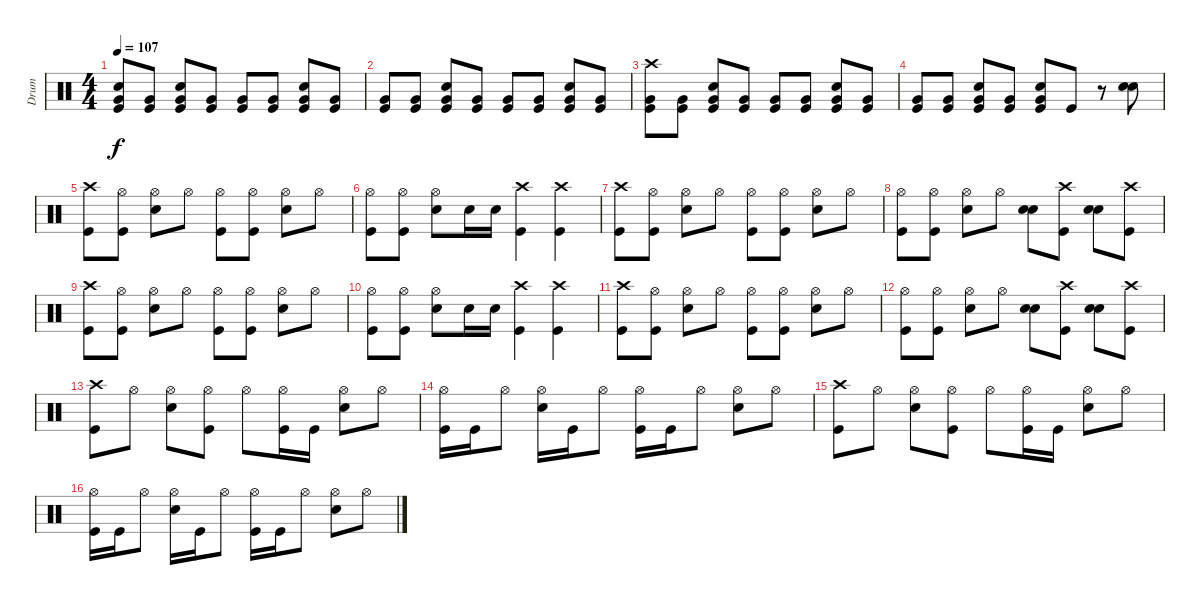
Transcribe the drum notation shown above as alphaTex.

\track ("Drum" "Drum") {instrument percussion}
\staff {score}
\articulation defaults
\ts (4 4)
\tempo 107
\clef neutral
\ks c
("Very Low Tom (hit)" "Kick (hit)" "Snare (hit) 2").8{dy f} ("Very Low Tom (hit)" "Kick (hit)").8 ("Very Low Tom (hit)" "Kick (hit)" "Snare (hit) 2").8 ("Very Low Tom (hit)" "Kick (hit)").8 ("Very Low Tom (hit)" "Kick (hit)").8 ("Very Low Tom (hit)" "Kick (hit)").8 ("Very Low Tom (hit)" "Kick (hit)" "Snare (hit) 2").8 ("Very Low Tom (hit)" "Kick (hit)").8 |
("Very Low Tom (hit)" "Kick (hit)").8 ("Very Low Tom (hit)" "Kick (hit)").8 ("Very Low Tom (hit)" "Kick (hit)" "Snare (hit) 2").8 ("Very Low Tom (hit)" "Kick (hit)").8 ("Very Low Tom (hit)" "Kick (hit)").8 ("Very Low Tom (hit)" "Kick (hit)").8 ("Very Low Tom (hit)" "Kick (hit)" "Snare (hit) 2").8 ("Very Low Tom (hit)" "Kick (hit)").8 |
("Very Low Tom (hit)" "Kick (hit)" "Crash high (hit)").8 ("Very Low Tom (hit)" "Kick (hit)").8 ("Very Low Tom (hit)" "Kick (hit)" "Snare (hit) 2").8 ("Very Low Tom (hit)" "Kick (hit)").8 ("Very Low Tom (hit)" "Kick (hit)").8 ("Very Low Tom (hit)" "Kick (hit)").8 ("Very Low Tom (hit)" "Kick (hit)" "Snare (hit) 2").8 ("Very Low Tom (hit)" "Kick (hit)").8 |
("Very Low Tom (hit)" "Kick (hit)").8 ("Very Low Tom (hit)" "Kick (hit)").8 ("Very Low Tom (hit)" "Kick (hit)" "Snare (hit) 2").8 ("Very Low Tom (hit)" "Kick (hit)").8 ("Very Low Tom (hit)" "Kick (hit)" "Snare (hit) 2").8 "Kick (hit)".8 r.8 ("Snare (hit) 2" "Snare (hit) 2").8 |
("Crash high (hit)" "Kick (hit)").8 ("Hi-Hat (open)" "Kick (hit)").8 ("Hi-Hat (open)" "Snare (hit) 2").8 "Hi-Hat (open)".8 ("Hi-Hat (open)" "Kick (hit)").8 ("Hi-Hat (open)" "Kick (hit)").8 ("Hi-Hat (open)" "Snare (hit) 2").8 "Hi-Hat (open)".8 |
("Hi-Hat (open)" "Kick (hit)").8 ("Hi-Hat (open)" "Kick (hit)").8 ("Hi-Hat (open)" "Snare (hit) 2").8 "Snare (hit) 2".16 "Snare (hit) 2".16 ("Crash high (hit)" "Kick (hit)").4 ("Crash high (hit)" "Kick (hit)").4 |
("Crash high (hit)" "Kick (hit)").8 ("Hi-Hat (open)" "Kick (hit)").8 ("Hi-Hat (open)" "Snare (hit) 2").8 "Hi-Hat (open)".8 ("Hi-Hat (open)" "Kick (hit)").8 ("Hi-Hat (open)" "Kick (hit)").8 ("Hi-Hat (open)" "Snare (hit) 2").8 "Hi-Hat (open)".8 |
("Hi-Hat (open)" "Kick (hit)").8 ("Hi-Hat (open)" "Kick (hit)").8 ("Hi-Hat (open)" "Snare (hit) 2").8 "Hi-Hat (open)".8 ("Snare (hit) 2" "Snare (hit) 2").8 ("Crash high (hit)" "Kick (hit)").8 ("Snare (hit) 2" "Snare (hit) 2").8 ("Crash high (hit)" "Kick (hit)").8 |
("Crash high (hit)" "Kick (hit)").8 ("Hi-Hat (open)" "Kick (hit)").8 ("Hi-Hat (open)" "Snare (hit) 2").8 "Hi-Hat (open)".8 ("Hi-Hat (open)" "Kick (hit)").8 ("Hi-Hat (open)" "Kick (hit)").8 ("Hi-Hat (open)" "Snare (hit) 2").8 "Hi-Hat (open)".8 |
("Hi-Hat (open)" "Kick (hit)").8 ("Hi-Hat (open)" "Kick (hit)").8 ("Hi-Hat (open)" "Snare (hit) 2").8 "Snare (hit) 2".16 "Snare (hit) 2".16 ("Crash high (hit)" "Kick (hit)").4 ("Crash high (hit)" "Kick (hit)").4 |
("Crash high (hit)" "Kick (hit)").8 ("Hi-Hat (open)" "Kick (hit)").8 ("Hi-Hat (open)" "Snare (hit) 2").8 "Hi-Hat (open)".8 ("Hi-Hat (open)" "Kick (hit)").8 ("Hi-Hat (open)" "Kick (hit)").8 ("Hi-Hat (open)" "Snare (hit) 2").8 "Hi-Hat (open)".8 |
("Hi-Hat (open)" "Kick (hit)").8 ("Hi-Hat (open)" "Kick (hit)").8 ("Hi-Hat (open)" "Snare (hit) 2").8 "Hi-Hat (open)".8 ("Snare (hit) 2" "Snare (hit) 2").8 ("Crash high (hit)" "Kick (hit)").8 ("Snare (hit) 2" "Snare (hit) 2").8 ("Crash high (hit)" "Kick (hit)").8 |
("Kick (hit)" "Crash high (hit)").8 "Hi-Hat (open)".8 ("Hi-Hat (open)" "Snare (hit) 2").8 ("Hi-Hat (open)" "Kick (hit)").8 "Hi-Hat (open)".8 ("Hi-Hat (open)" "Kick (hit)").16 "Kick (hit)".16 ("Snare (hit) 2" "Hi-Hat (open)").8 "Hi-Hat (open)".8 |
("Hi-Hat (open)" "Kick (hit)").16 "Kick (hit)".16 "Hi-Hat (open)".8 ("Hi-Hat (open)" "Snare (hit) 2").16 "Kick (hit)".16 "Hi-Hat (open)".8 ("Hi-Hat (open)" "Kick (hit)").16 "Kick (hit)".16 "Hi-Hat (open)".8 ("Hi-Hat (open)" "Snare (hit) 2").8 "Hi-Hat (open)".8 |
("Kick (hit)" "Crash high (hit)").8 "Hi-Hat (open)".8 ("Hi-Hat (open)" "Snare (hit) 2").8 ("Hi-Hat (open)" "Kick (hit)").8 "Hi-Hat (open)".8 ("Hi-Hat (open)" "Kick (hit)").16 "Kick (hit)".16 ("Snare (hit) 2" "Hi-Hat (open)").8 "Hi-Hat (open)".8 |
("Hi-Hat (open)" "Kick (hit)").16 "Kick (hit)".16 "Hi-Hat (open)".8 ("Hi-Hat (open)" "Snare (hit) 2").16 "Kick (hit)".16 "Hi-Hat (open)".8 ("Hi-Hat (open)" "Kick (hit)").16 "Kick (hit)".16 "Hi-Hat (open)".8 ("Hi-Hat (open)" "Snare (hit) 2").8 "Hi-Hat (open)".8
